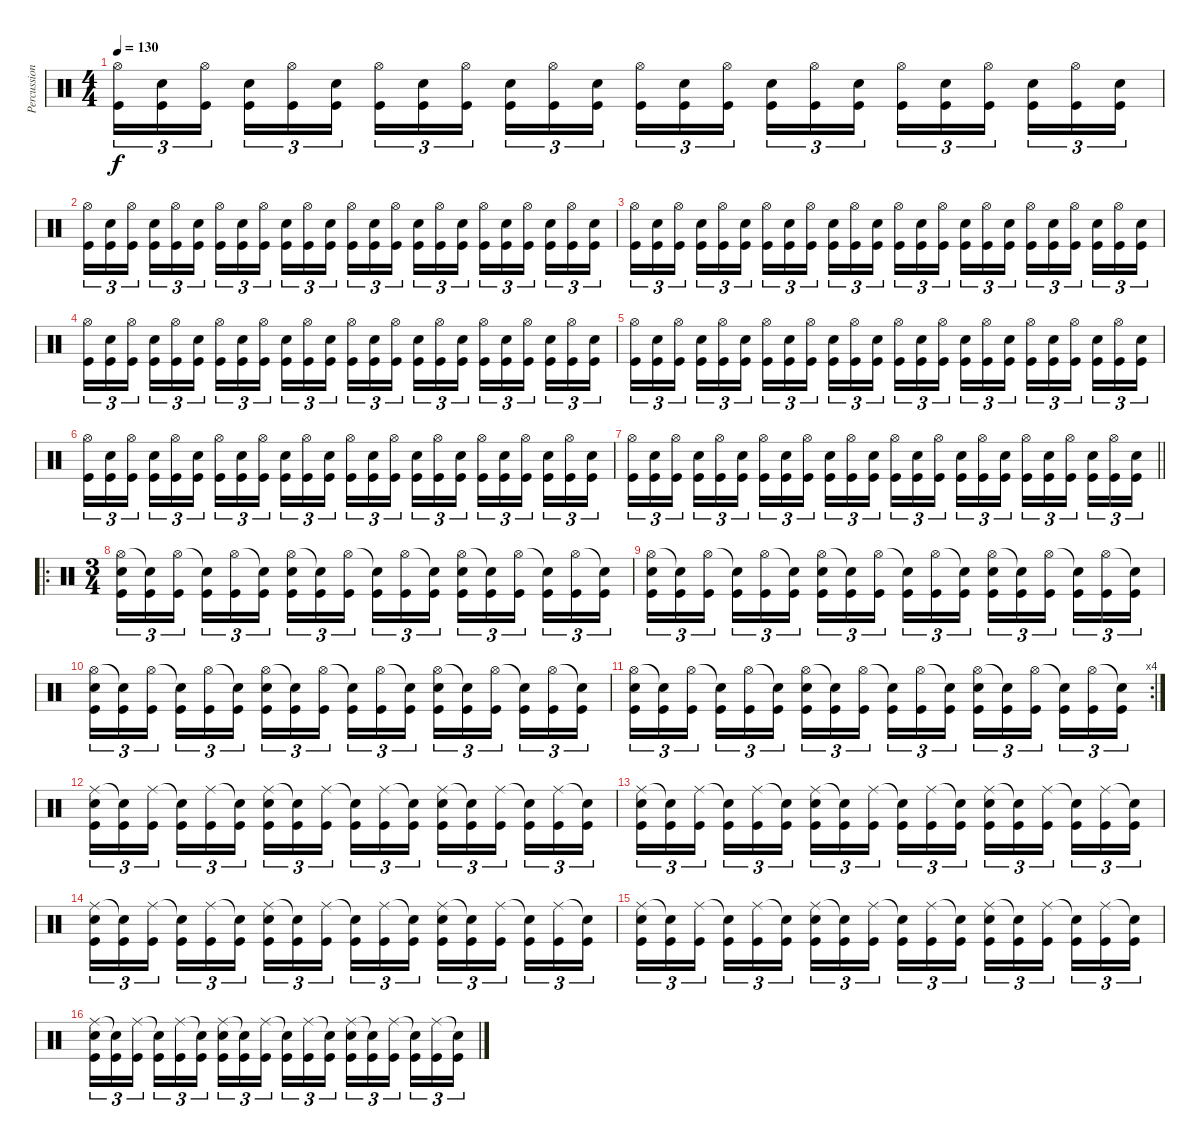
\track ("Percussion" "Percussion") {instrument percussion}
\staff {score}
\articulation defaults
\ts (4 4)
\tempo 130
\clef neutral
\ks c
("Hi-Hat (open)" "Kick (hit)").16{tu (3 2) dy f} ("Electric Snare (hit)" "Kick (hit)").16{tu (3 2)} ("Hi-Hat (open)" "Kick (hit)").16{tu (3 2) beam splitsecondary} ("Electric Snare (hit)" "Kick (hit)").16{tu (3 2)} ("Hi-Hat (open)" "Kick (hit)").16{tu (3 2)} ("Electric Snare (hit)" "Kick (hit)").16{tu (3 2)} ("Hi-Hat (open)" "Kick (hit)").16{tu (3 2)} ("Electric Snare (hit)" "Kick (hit)").16{tu (3 2)} ("Hi-Hat (open)" "Kick (hit)").16{tu (3 2) beam splitsecondary} ("Electric Snare (hit)" "Kick (hit)").16{tu (3 2)} ("Hi-Hat (open)" "Kick (hit)").16{tu (3 2)} ("Electric Snare (hit)" "Kick (hit)").16{tu (3 2)} ("Hi-Hat (open)" "Kick (hit)").16{tu (3 2)} ("Electric Snare (hit)" "Kick (hit)").16{tu (3 2)} ("Hi-Hat (open)" "Kick (hit)").16{tu (3 2) beam splitsecondary} ("Electric Snare (hit)" "Kick (hit)").16{tu (3 2)} ("Hi-Hat (open)" "Kick (hit)").16{tu (3 2)} ("Electric Snare (hit)" "Kick (hit)").16{tu (3 2)} ("Hi-Hat (open)" "Kick (hit)").16{tu (3 2)} ("Electric Snare (hit)" "Kick (hit)").16{tu (3 2)} ("Hi-Hat (open)" "Kick (hit)").16{tu (3 2) beam splitsecondary} ("Electric Snare (hit)" "Kick (hit)").16{tu (3 2)} ("Hi-Hat (open)" "Kick (hit)").16{tu (3 2)} ("Electric Snare (hit)" "Kick (hit)").16{tu (3 2)} |
("Hi-Hat (open)" "Kick (hit)").16{tu (3 2)} ("Electric Snare (hit)" "Kick (hit)").16{tu (3 2)} ("Hi-Hat (open)" "Kick (hit)").16{tu (3 2) beam splitsecondary} ("Electric Snare (hit)" "Kick (hit)").16{tu (3 2)} ("Hi-Hat (open)" "Kick (hit)").16{tu (3 2)} ("Electric Snare (hit)" "Kick (hit)").16{tu (3 2)} ("Hi-Hat (open)" "Kick (hit)").16{tu (3 2)} ("Electric Snare (hit)" "Kick (hit)").16{tu (3 2)} ("Hi-Hat (open)" "Kick (hit)").16{tu (3 2) beam splitsecondary} ("Electric Snare (hit)" "Kick (hit)").16{tu (3 2)} ("Hi-Hat (open)" "Kick (hit)").16{tu (3 2)} ("Electric Snare (hit)" "Kick (hit)").16{tu (3 2)} ("Hi-Hat (open)" "Kick (hit)").16{tu (3 2)} ("Electric Snare (hit)" "Kick (hit)").16{tu (3 2)} ("Hi-Hat (open)" "Kick (hit)").16{tu (3 2) beam splitsecondary} ("Electric Snare (hit)" "Kick (hit)").16{tu (3 2)} ("Hi-Hat (open)" "Kick (hit)").16{tu (3 2)} ("Electric Snare (hit)" "Kick (hit)").16{tu (3 2)} ("Hi-Hat (open)" "Kick (hit)").16{tu (3 2)} ("Electric Snare (hit)" "Kick (hit)").16{tu (3 2)} ("Hi-Hat (open)" "Kick (hit)").16{tu (3 2) beam splitsecondary} ("Electric Snare (hit)" "Kick (hit)").16{tu (3 2)} ("Hi-Hat (open)" "Kick (hit)").16{tu (3 2)} ("Electric Snare (hit)" "Kick (hit)").16{tu (3 2)} |
("Hi-Hat (open)" "Kick (hit)").16{tu (3 2)} ("Electric Snare (hit)" "Kick (hit)").16{tu (3 2)} ("Hi-Hat (open)" "Kick (hit)").16{tu (3 2) beam splitsecondary} ("Electric Snare (hit)" "Kick (hit)").16{tu (3 2)} ("Hi-Hat (open)" "Kick (hit)").16{tu (3 2)} ("Electric Snare (hit)" "Kick (hit)").16{tu (3 2)} ("Hi-Hat (open)" "Kick (hit)").16{tu (3 2)} ("Electric Snare (hit)" "Kick (hit)").16{tu (3 2)} ("Hi-Hat (open)" "Kick (hit)").16{tu (3 2) beam splitsecondary} ("Electric Snare (hit)" "Kick (hit)").16{tu (3 2)} ("Hi-Hat (open)" "Kick (hit)").16{tu (3 2)} ("Electric Snare (hit)" "Kick (hit)").16{tu (3 2)} ("Hi-Hat (open)" "Kick (hit)").16{tu (3 2)} ("Electric Snare (hit)" "Kick (hit)").16{tu (3 2)} ("Hi-Hat (open)" "Kick (hit)").16{tu (3 2) beam splitsecondary} ("Electric Snare (hit)" "Kick (hit)").16{tu (3 2)} ("Hi-Hat (open)" "Kick (hit)").16{tu (3 2)} ("Electric Snare (hit)" "Kick (hit)").16{tu (3 2)} ("Hi-Hat (open)" "Kick (hit)").16{tu (3 2)} ("Electric Snare (hit)" "Kick (hit)").16{tu (3 2)} ("Hi-Hat (open)" "Kick (hit)").16{tu (3 2) beam splitsecondary} ("Electric Snare (hit)" "Kick (hit)").16{tu (3 2)} ("Hi-Hat (open)" "Kick (hit)").16{tu (3 2)} ("Electric Snare (hit)" "Kick (hit)").16{tu (3 2)} |
("Hi-Hat (open)" "Kick (hit)").16{tu (3 2)} ("Electric Snare (hit)" "Kick (hit)").16{tu (3 2)} ("Hi-Hat (open)" "Kick (hit)").16{tu (3 2) beam splitsecondary} ("Electric Snare (hit)" "Kick (hit)").16{tu (3 2)} ("Hi-Hat (open)" "Kick (hit)").16{tu (3 2)} ("Electric Snare (hit)" "Kick (hit)").16{tu (3 2)} ("Hi-Hat (open)" "Kick (hit)").16{tu (3 2)} ("Electric Snare (hit)" "Kick (hit)").16{tu (3 2)} ("Hi-Hat (open)" "Kick (hit)").16{tu (3 2) beam splitsecondary} ("Electric Snare (hit)" "Kick (hit)").16{tu (3 2)} ("Hi-Hat (open)" "Kick (hit)").16{tu (3 2)} ("Electric Snare (hit)" "Kick (hit)").16{tu (3 2)} ("Hi-Hat (open)" "Kick (hit)").16{tu (3 2)} ("Electric Snare (hit)" "Kick (hit)").16{tu (3 2)} ("Hi-Hat (open)" "Kick (hit)").16{tu (3 2) beam splitsecondary} ("Electric Snare (hit)" "Kick (hit)").16{tu (3 2)} ("Hi-Hat (open)" "Kick (hit)").16{tu (3 2)} ("Electric Snare (hit)" "Kick (hit)").16{tu (3 2)} ("Hi-Hat (open)" "Kick (hit)").16{tu (3 2)} ("Electric Snare (hit)" "Kick (hit)").16{tu (3 2)} ("Hi-Hat (open)" "Kick (hit)").16{tu (3 2) beam splitsecondary} ("Electric Snare (hit)" "Kick (hit)").16{tu (3 2)} ("Hi-Hat (open)" "Kick (hit)").16{tu (3 2)} ("Electric Snare (hit)" "Kick (hit)").16{tu (3 2)} |
("Hi-Hat (open)" "Kick (hit)").16{tu (3 2)} ("Electric Snare (hit)" "Kick (hit)").16{tu (3 2)} ("Hi-Hat (open)" "Kick (hit)").16{tu (3 2) beam splitsecondary} ("Electric Snare (hit)" "Kick (hit)").16{tu (3 2)} ("Hi-Hat (open)" "Kick (hit)").16{tu (3 2)} ("Electric Snare (hit)" "Kick (hit)").16{tu (3 2)} ("Hi-Hat (open)" "Kick (hit)").16{tu (3 2)} ("Electric Snare (hit)" "Kick (hit)").16{tu (3 2)} ("Hi-Hat (open)" "Kick (hit)").16{tu (3 2) beam splitsecondary} ("Electric Snare (hit)" "Kick (hit)").16{tu (3 2)} ("Hi-Hat (open)" "Kick (hit)").16{tu (3 2)} ("Electric Snare (hit)" "Kick (hit)").16{tu (3 2)} ("Hi-Hat (open)" "Kick (hit)").16{tu (3 2)} ("Electric Snare (hit)" "Kick (hit)").16{tu (3 2)} ("Hi-Hat (open)" "Kick (hit)").16{tu (3 2) beam splitsecondary} ("Electric Snare (hit)" "Kick (hit)").16{tu (3 2)} ("Hi-Hat (open)" "Kick (hit)").16{tu (3 2)} ("Electric Snare (hit)" "Kick (hit)").16{tu (3 2)} ("Hi-Hat (open)" "Kick (hit)").16{tu (3 2)} ("Electric Snare (hit)" "Kick (hit)").16{tu (3 2)} ("Hi-Hat (open)" "Kick (hit)").16{tu (3 2) beam splitsecondary} ("Electric Snare (hit)" "Kick (hit)").16{tu (3 2)} ("Hi-Hat (open)" "Kick (hit)").16{tu (3 2)} ("Electric Snare (hit)" "Kick (hit)").16{tu (3 2)} |
("Hi-Hat (open)" "Kick (hit)").16{tu (3 2)} ("Electric Snare (hit)" "Kick (hit)").16{tu (3 2)} ("Hi-Hat (open)" "Kick (hit)").16{tu (3 2) beam splitsecondary} ("Electric Snare (hit)" "Kick (hit)").16{tu (3 2)} ("Hi-Hat (open)" "Kick (hit)").16{tu (3 2)} ("Electric Snare (hit)" "Kick (hit)").16{tu (3 2)} ("Hi-Hat (open)" "Kick (hit)").16{tu (3 2)} ("Electric Snare (hit)" "Kick (hit)").16{tu (3 2)} ("Hi-Hat (open)" "Kick (hit)").16{tu (3 2) beam splitsecondary} ("Electric Snare (hit)" "Kick (hit)").16{tu (3 2)} ("Hi-Hat (open)" "Kick (hit)").16{tu (3 2)} ("Electric Snare (hit)" "Kick (hit)").16{tu (3 2)} ("Hi-Hat (open)" "Kick (hit)").16{tu (3 2)} ("Electric Snare (hit)" "Kick (hit)").16{tu (3 2)} ("Hi-Hat (open)" "Kick (hit)").16{tu (3 2) beam splitsecondary} ("Electric Snare (hit)" "Kick (hit)").16{tu (3 2)} ("Hi-Hat (open)" "Kick (hit)").16{tu (3 2)} ("Electric Snare (hit)" "Kick (hit)").16{tu (3 2)} ("Hi-Hat (open)" "Kick (hit)").16{tu (3 2)} ("Electric Snare (hit)" "Kick (hit)").16{tu (3 2)} ("Hi-Hat (open)" "Kick (hit)").16{tu (3 2) beam splitsecondary} ("Electric Snare (hit)" "Kick (hit)").16{tu (3 2)} ("Hi-Hat (open)" "Kick (hit)").16{tu (3 2)} ("Electric Snare (hit)" "Kick (hit)").16{tu (3 2)} |
\barLineRight lightlight
("Hi-Hat (open)" "Kick (hit)").16{tu (3 2)} ("Electric Snare (hit)" "Kick (hit)").16{tu (3 2)} ("Hi-Hat (open)" "Kick (hit)").16{tu (3 2) beam splitsecondary} ("Electric Snare (hit)" "Kick (hit)").16{tu (3 2)} ("Hi-Hat (open)" "Kick (hit)").16{tu (3 2)} ("Electric Snare (hit)" "Kick (hit)").16{tu (3 2)} ("Hi-Hat (open)" "Kick (hit)").16{tu (3 2)} ("Electric Snare (hit)" "Kick (hit)").16{tu (3 2)} ("Hi-Hat (open)" "Kick (hit)").16{tu (3 2) beam splitsecondary} ("Electric Snare (hit)" "Kick (hit)").16{tu (3 2)} ("Hi-Hat (open)" "Kick (hit)").16{tu (3 2)} ("Electric Snare (hit)" "Kick (hit)").16{tu (3 2)} ("Hi-Hat (open)" "Kick (hit)").16{tu (3 2)} ("Electric Snare (hit)" "Kick (hit)").16{tu (3 2)} ("Hi-Hat (open)" "Kick (hit)").16{tu (3 2) beam splitsecondary} ("Electric Snare (hit)" "Kick (hit)").16{tu (3 2)} ("Hi-Hat (open)" "Kick (hit)").16{tu (3 2)} ("Electric Snare (hit)" "Kick (hit)").16{tu (3 2)} ("Hi-Hat (open)" "Kick (hit)").16{tu (3 2)} ("Electric Snare (hit)" "Kick (hit)").16{tu (3 2)} ("Hi-Hat (open)" "Kick (hit)").16{tu (3 2) beam splitsecondary} ("Electric Snare (hit)" "Kick (hit)").16{tu (3 2)} ("Hi-Hat (open)" "Kick (hit)").16{tu (3 2)} ("Electric Snare (hit)" "Kick (hit)").16{tu (3 2)} |
\ro
\ts (3 4)
("Hi-Hat (open)" "Electric Snare (hit)" "Kick (hit)").16{tu (3 2)} ("Snare (hit)"{t} "Kick (hit)").16{tu (3 2)} ("Hi-Hat (open)" "Kick (hit)").16{tu (3 2) beam splitsecondary} ("Snare (hit)"{t} "Kick (hit)").16{tu (3 2)} ("Hi-Hat (open)" "Kick (hit)").16{tu (3 2)} ("Snare (hit)"{t} "Kick (hit)").16{tu (3 2)} ("Hi-Hat (open)" "Electric Snare (hit)" "Kick (hit)").16{tu (3 2)} ("Snare (hit)"{t} "Kick (hit)").16{tu (3 2)} ("Hi-Hat (open)" "Kick (hit)").16{tu (3 2) beam splitsecondary} ("Snare (hit)"{t} "Kick (hit)").16{tu (3 2)} ("Hi-Hat (open)" "Kick (hit)").16{tu (3 2)} ("Snare (hit)"{t} "Kick (hit)").16{tu (3 2)} ("Hi-Hat (open)" "Electric Snare (hit)" "Kick (hit)").16{tu (3 2)} ("Snare (hit)"{t} "Kick (hit)").16{tu (3 2)} ("Hi-Hat (open)" "Kick (hit)").16{tu (3 2) beam splitsecondary} ("Snare (hit)"{t} "Kick (hit)").16{tu (3 2)} ("Hi-Hat (open)" "Kick (hit)").16{tu (3 2)} ("Snare (hit)"{t} "Kick (hit)").16{tu (3 2)} |
("Hi-Hat (open)" "Electric Snare (hit)" "Kick (hit)").16{tu (3 2)} ("Snare (hit)"{t} "Kick (hit)").16{tu (3 2)} ("Hi-Hat (open)" "Kick (hit)").16{tu (3 2) beam splitsecondary} ("Snare (hit)"{t} "Kick (hit)").16{tu (3 2)} ("Hi-Hat (open)" "Kick (hit)").16{tu (3 2)} ("Snare (hit)"{t} "Kick (hit)").16{tu (3 2)} ("Hi-Hat (open)" "Electric Snare (hit)" "Kick (hit)").16{tu (3 2)} ("Snare (hit)"{t} "Kick (hit)").16{tu (3 2)} ("Hi-Hat (open)" "Kick (hit)").16{tu (3 2) beam splitsecondary} ("Snare (hit)"{t} "Kick (hit)").16{tu (3 2)} ("Hi-Hat (open)" "Kick (hit)").16{tu (3 2)} ("Snare (hit)"{t} "Kick (hit)").16{tu (3 2)} ("Hi-Hat (open)" "Electric Snare (hit)" "Kick (hit)").16{tu (3 2)} ("Snare (hit)"{t} "Kick (hit)").16{tu (3 2)} ("Hi-Hat (open)" "Kick (hit)").16{tu (3 2) beam splitsecondary} ("Snare (hit)"{t} "Kick (hit)").16{tu (3 2)} ("Hi-Hat (open)" "Kick (hit)").16{tu (3 2)} ("Snare (hit)"{t} "Kick (hit)").16{tu (3 2)} |
("Hi-Hat (open)" "Electric Snare (hit)" "Kick (hit)").16{tu (3 2)} ("Snare (hit)"{t} "Kick (hit)").16{tu (3 2)} ("Hi-Hat (open)" "Kick (hit)").16{tu (3 2) beam splitsecondary} ("Snare (hit)"{t} "Kick (hit)").16{tu (3 2)} ("Hi-Hat (open)" "Kick (hit)").16{tu (3 2)} ("Snare (hit)"{t} "Kick (hit)").16{tu (3 2)} ("Hi-Hat (open)" "Electric Snare (hit)" "Kick (hit)").16{tu (3 2)} ("Snare (hit)"{t} "Kick (hit)").16{tu (3 2)} ("Hi-Hat (open)" "Kick (hit)").16{tu (3 2) beam splitsecondary} ("Snare (hit)"{t} "Kick (hit)").16{tu (3 2)} ("Hi-Hat (open)" "Kick (hit)").16{tu (3 2)} ("Snare (hit)"{t} "Kick (hit)").16{tu (3 2)} ("Hi-Hat (open)" "Electric Snare (hit)" "Kick (hit)").16{tu (3 2)} ("Snare (hit)"{t} "Kick (hit)").16{tu (3 2)} ("Hi-Hat (open)" "Kick (hit)").16{tu (3 2) beam splitsecondary} ("Snare (hit)"{t} "Kick (hit)").16{tu (3 2)} ("Hi-Hat (open)" "Kick (hit)").16{tu (3 2)} ("Snare (hit)"{t} "Kick (hit)").16{tu (3 2)} |
\rc 4
("Hi-Hat (open)" "Electric Snare (hit)" "Kick (hit)").16{tu (3 2)} ("Snare (hit)"{t} "Kick (hit)").16{tu (3 2)} ("Hi-Hat (open)" "Kick (hit)").16{tu (3 2) beam splitsecondary} ("Snare (hit)"{t} "Kick (hit)").16{tu (3 2)} ("Hi-Hat (open)" "Kick (hit)").16{tu (3 2)} ("Snare (hit)"{t} "Kick (hit)").16{tu (3 2)} ("Hi-Hat (open)" "Electric Snare (hit)" "Kick (hit)").16{tu (3 2)} ("Snare (hit)"{t} "Kick (hit)").16{tu (3 2)} ("Hi-Hat (open)" "Kick (hit)").16{tu (3 2) beam splitsecondary} ("Snare (hit)"{t} "Kick (hit)").16{tu (3 2)} ("Hi-Hat (open)" "Kick (hit)").16{tu (3 2)} ("Snare (hit)"{t} "Kick (hit)").16{tu (3 2)} ("Hi-Hat (open)" "Electric Snare (hit)" "Kick (hit)").16{tu (3 2)} ("Snare (hit)"{t} "Kick (hit)").16{tu (3 2)} ("Hi-Hat (open)" "Kick (hit)").16{tu (3 2) beam splitsecondary} ("Snare (hit)"{t} "Kick (hit)").16{tu (3 2)} ("Hi-Hat (open)" "Kick (hit)").16{tu (3 2)} ("Snare (hit)"{t} "Kick (hit)").16{tu (3 2)} |
("Ride (middle)" "Electric Snare (hit)" "Kick (hit)").16{tu (3 2)} ("Snare (hit)"{t} "Kick (hit)").16{tu (3 2)} ("Ride (middle)" "Kick (hit)").16{tu (3 2) beam splitsecondary} ("Snare (hit)"{t} "Kick (hit)").16{tu (3 2)} ("Ride (middle)" "Kick (hit)").16{tu (3 2)} ("Snare (hit)"{t} "Kick (hit)").16{tu (3 2)} ("Ride (middle)" "Electric Snare (hit)" "Kick (hit)").16{tu (3 2)} ("Snare (hit)"{t} "Kick (hit)").16{tu (3 2)} ("Ride (middle)" "Kick (hit)").16{tu (3 2) beam splitsecondary} ("Snare (hit)"{t} "Kick (hit)").16{tu (3 2)} ("Ride (middle)" "Kick (hit)").16{tu (3 2)} ("Snare (hit)"{t} "Kick (hit)").16{tu (3 2)} ("Ride (middle)" "Electric Snare (hit)" "Kick (hit)").16{tu (3 2)} ("Snare (hit)"{t} "Kick (hit)").16{tu (3 2)} ("Ride (middle)" "Kick (hit)").16{tu (3 2) beam splitsecondary} ("Snare (hit)"{t} "Kick (hit)").16{tu (3 2)} ("Ride (middle)" "Kick (hit)").16{tu (3 2)} ("Snare (hit)"{t} "Kick (hit)").16{tu (3 2)} |
("Ride (middle)" "Electric Snare (hit)" "Kick (hit)").16{tu (3 2)} ("Snare (hit)"{t} "Kick (hit)").16{tu (3 2)} ("Ride (middle)" "Kick (hit)").16{tu (3 2) beam splitsecondary} ("Snare (hit)"{t} "Kick (hit)").16{tu (3 2)} ("Ride (middle)" "Kick (hit)").16{tu (3 2)} ("Snare (hit)"{t} "Kick (hit)").16{tu (3 2)} ("Ride (middle)" "Electric Snare (hit)" "Kick (hit)").16{tu (3 2)} ("Snare (hit)"{t} "Kick (hit)").16{tu (3 2)} ("Ride (middle)" "Kick (hit)").16{tu (3 2) beam splitsecondary} ("Snare (hit)"{t} "Kick (hit)").16{tu (3 2)} ("Ride (middle)" "Kick (hit)").16{tu (3 2)} ("Snare (hit)"{t} "Kick (hit)").16{tu (3 2)} ("Ride (middle)" "Electric Snare (hit)" "Kick (hit)").16{tu (3 2)} ("Snare (hit)"{t} "Kick (hit)").16{tu (3 2)} ("Ride (middle)" "Kick (hit)").16{tu (3 2) beam splitsecondary} ("Snare (hit)"{t} "Kick (hit)").16{tu (3 2)} ("Ride (middle)" "Kick (hit)").16{tu (3 2)} ("Snare (hit)"{t} "Kick (hit)").16{tu (3 2)} |
("Ride (middle)" "Electric Snare (hit)" "Kick (hit)").16{tu (3 2)} ("Snare (hit)"{t} "Kick (hit)").16{tu (3 2)} ("Ride (middle)" "Kick (hit)").16{tu (3 2) beam splitsecondary} ("Snare (hit)"{t} "Kick (hit)").16{tu (3 2)} ("Ride (middle)" "Kick (hit)").16{tu (3 2)} ("Snare (hit)"{t} "Kick (hit)").16{tu (3 2)} ("Ride (middle)" "Electric Snare (hit)" "Kick (hit)").16{tu (3 2)} ("Snare (hit)"{t} "Kick (hit)").16{tu (3 2)} ("Ride (middle)" "Kick (hit)").16{tu (3 2) beam splitsecondary} ("Snare (hit)"{t} "Kick (hit)").16{tu (3 2)} ("Ride (middle)" "Kick (hit)").16{tu (3 2)} ("Snare (hit)"{t} "Kick (hit)").16{tu (3 2)} ("Ride (middle)" "Electric Snare (hit)" "Kick (hit)").16{tu (3 2)} ("Snare (hit)"{t} "Kick (hit)").16{tu (3 2)} ("Ride (middle)" "Kick (hit)").16{tu (3 2) beam splitsecondary} ("Snare (hit)"{t} "Kick (hit)").16{tu (3 2)} ("Ride (middle)" "Kick (hit)").16{tu (3 2)} ("Snare (hit)"{t} "Kick (hit)").16{tu (3 2)} |
("Ride (middle)" "Electric Snare (hit)" "Kick (hit)").16{tu (3 2)} ("Snare (hit)"{t} "Kick (hit)").16{tu (3 2)} ("Ride (middle)" "Kick (hit)").16{tu (3 2) beam splitsecondary} ("Snare (hit)"{t} "Kick (hit)").16{tu (3 2)} ("Ride (middle)" "Kick (hit)").16{tu (3 2)} ("Snare (hit)"{t} "Kick (hit)").16{tu (3 2)} ("Ride (middle)" "Electric Snare (hit)" "Kick (hit)").16{tu (3 2)} ("Snare (hit)"{t} "Kick (hit)").16{tu (3 2)} ("Ride (middle)" "Kick (hit)").16{tu (3 2) beam splitsecondary} ("Snare (hit)"{t} "Kick (hit)").16{tu (3 2)} ("Ride (middle)" "Kick (hit)").16{tu (3 2)} ("Snare (hit)"{t} "Kick (hit)").16{tu (3 2)} ("Ride (middle)" "Electric Snare (hit)" "Kick (hit)").16{tu (3 2)} ("Snare (hit)"{t} "Kick (hit)").16{tu (3 2)} ("Ride (middle)" "Kick (hit)").16{tu (3 2) beam splitsecondary} ("Snare (hit)"{t} "Kick (hit)").16{tu (3 2)} ("Ride (middle)" "Kick (hit)").16{tu (3 2)} ("Snare (hit)"{t} "Kick (hit)").16{tu (3 2)} |
("Ride (middle)" "Electric Snare (hit)" "Kick (hit)").16{tu (3 2)} ("Snare (hit)"{t} "Kick (hit)").16{tu (3 2)} ("Ride (middle)" "Kick (hit)").16{tu (3 2) beam splitsecondary} ("Snare (hit)"{t} "Kick (hit)").16{tu (3 2)} ("Ride (middle)" "Kick (hit)").16{tu (3 2)} ("Snare (hit)"{t} "Kick (hit)").16{tu (3 2)} ("Ride (middle)" "Electric Snare (hit)" "Kick (hit)").16{tu (3 2)} ("Snare (hit)"{t} "Kick (hit)").16{tu (3 2)} ("Ride (middle)" "Kick (hit)").16{tu (3 2) beam splitsecondary} ("Snare (hit)"{t} "Kick (hit)").16{tu (3 2)} ("Ride (middle)" "Kick (hit)").16{tu (3 2)} ("Snare (hit)"{t} "Kick (hit)").16{tu (3 2)} ("Ride (middle)" "Electric Snare (hit)" "Kick (hit)").16{tu (3 2)} ("Snare (hit)"{t} "Kick (hit)").16{tu (3 2)} ("Ride (middle)" "Kick (hit)").16{tu (3 2) beam splitsecondary} ("Snare (hit)"{t} "Kick (hit)").16{tu (3 2)} ("Ride (middle)" "Kick (hit)").16{tu (3 2)} ("Snare (hit)"{t} "Kick (hit)").16{tu (3 2)}
